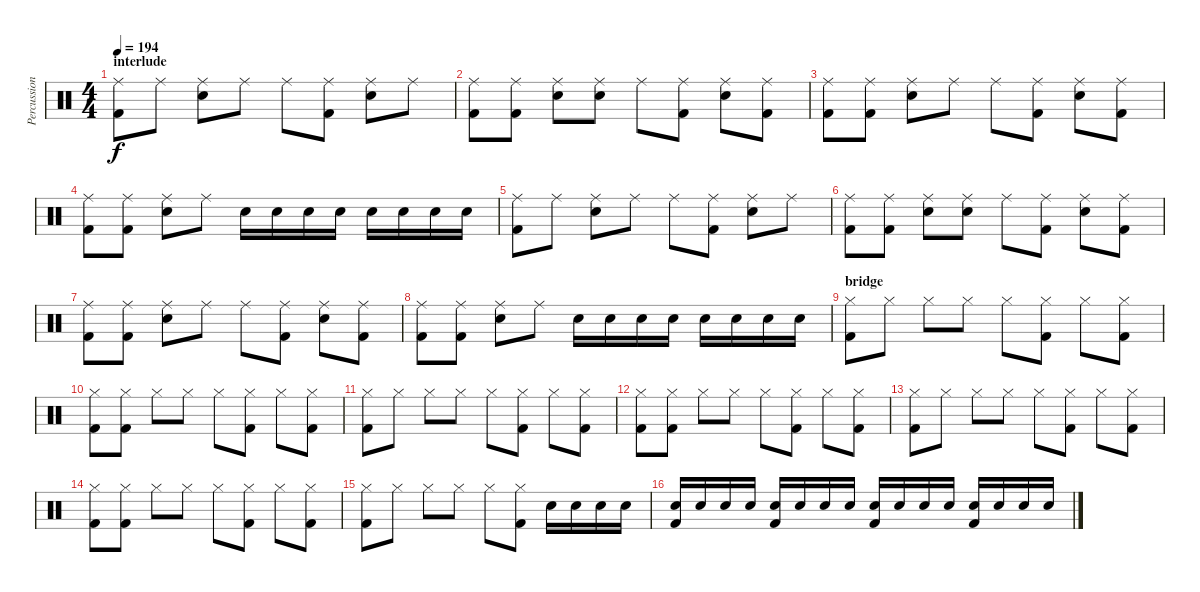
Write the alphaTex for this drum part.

\track ("Percussion" "Percussion") {instrument percussion}
\staff {score}
\articulation defaults
\ts (4 4)
\section ("" "interlude")
\tempo 194
\clef neutral
\ks c
("Ride (middle)" "Kick (hit) 2").8{dy f} "Ride (middle)".8 ("Ride (middle)" "Snare (hit) 2").8 "Ride (middle)".8 "Ride (middle)".8 ("Ride (middle)" "Kick (hit) 2").8 ("Ride (middle)" "Snare (hit) 2").8 "Ride (middle)".8 |
("Ride (middle)" "Kick (hit) 2").8 ("Ride (middle)" "Kick (hit) 2").8 ("Ride (middle)" "Snare (hit) 2").8 ("Ride (middle)" "Snare (hit) 2").8 "Ride (middle)".8 ("Ride (middle)" "Kick (hit) 2").8 ("Ride (middle)" "Snare (hit) 2").8 ("Ride (middle)" "Kick (hit) 2").8 |
("Ride (middle)" "Kick (hit) 2").8 ("Ride (middle)" "Kick (hit) 2").8 ("Ride (middle)" "Snare (hit) 2").8 "Ride (middle)".8 "Ride (middle)".8 ("Ride (middle)" "Kick (hit) 2").8 ("Ride (middle)" "Snare (hit) 2").8 ("Ride (middle)" "Kick (hit) 2").8 |
("Ride (middle)" "Kick (hit) 2").8 ("Ride (middle)" "Kick (hit) 2").8 ("Ride (middle)" "Snare (hit) 2").8 "Ride (middle)".8 "Snare (hit) 2".16 "Snare (hit) 2".16 "Snare (hit) 2".16 "Snare (hit) 2".16 "Snare (hit) 2".16 "Snare (hit) 2".16 "Snare (hit) 2".16 "Snare (hit) 2".16 |
("Ride (middle)" "Kick (hit) 2").8 "Ride (middle)".8 ("Ride (middle)" "Snare (hit) 2").8 "Ride (middle)".8 "Ride (middle)".8 ("Ride (middle)" "Kick (hit) 2").8 ("Ride (middle)" "Snare (hit) 2").8 "Ride (middle)".8 |
("Ride (middle)" "Kick (hit) 2").8 ("Ride (middle)" "Kick (hit) 2").8 ("Ride (middle)" "Snare (hit) 2").8 ("Ride (middle)" "Snare (hit) 2").8 "Ride (middle)".8 ("Ride (middle)" "Kick (hit) 2").8 ("Ride (middle)" "Snare (hit) 2").8 ("Ride (middle)" "Kick (hit) 2").8 |
("Ride (middle)" "Kick (hit) 2").8 ("Ride (middle)" "Kick (hit) 2").8 ("Ride (middle)" "Snare (hit) 2").8 "Ride (middle)".8 "Ride (middle)".8 ("Ride (middle)" "Kick (hit) 2").8 ("Ride (middle)" "Snare (hit) 2").8 ("Ride (middle)" "Kick (hit) 2").8 |
("Ride (middle)" "Kick (hit) 2").8 ("Ride (middle)" "Kick (hit) 2").8 ("Ride (middle)" "Snare (hit) 2").8 "Ride (middle)".8 "Snare (hit) 2".16 "Snare (hit) 2".16 "Snare (hit) 2".16 "Snare (hit) 2".16 "Snare (hit) 2".16 "Snare (hit) 2".16 "Snare (hit) 2".16 "Snare (hit) 2".16 |
\section ("" "bridge")
("Hi-Hat (closed)" "Kick (hit) 2").8 "Hi-Hat (closed)".8 "Hi-Hat (closed)".8 "Hi-Hat (closed)".8 "Hi-Hat (closed)".8 ("Hi-Hat (closed)" "Kick (hit) 2").8 "Hi-Hat (closed)".8 ("Hi-Hat (closed)" "Kick (hit) 2").8 |
("Hi-Hat (closed)" "Kick (hit) 2").8 ("Hi-Hat (closed)" "Kick (hit) 2").8 "Hi-Hat (closed)".8 "Hi-Hat (closed)".8 "Hi-Hat (closed)".8 ("Hi-Hat (closed)" "Kick (hit) 2").8 "Hi-Hat (closed)".8 ("Hi-Hat (closed)" "Kick (hit) 2").8 |
("Hi-Hat (closed)" "Kick (hit) 2").8 "Hi-Hat (closed)".8 "Hi-Hat (closed)".8 "Hi-Hat (closed)".8 "Hi-Hat (closed)".8 ("Hi-Hat (closed)" "Kick (hit) 2").8 "Hi-Hat (closed)".8 ("Hi-Hat (closed)" "Kick (hit) 2").8 |
("Hi-Hat (closed)" "Kick (hit) 2").8 ("Hi-Hat (closed)" "Kick (hit) 2").8 "Hi-Hat (closed)".8 "Hi-Hat (closed)".8 "Hi-Hat (closed)".8 ("Hi-Hat (closed)" "Kick (hit) 2").8 "Hi-Hat (closed)".8 ("Hi-Hat (closed)" "Kick (hit) 2").8 |
("Hi-Hat (closed)" "Kick (hit) 2").8 "Hi-Hat (closed)".8 "Hi-Hat (closed)".8 "Hi-Hat (closed)".8 "Hi-Hat (closed)".8 ("Hi-Hat (closed)" "Kick (hit) 2").8 "Hi-Hat (closed)".8 ("Hi-Hat (closed)" "Kick (hit) 2").8 |
("Hi-Hat (closed)" "Kick (hit) 2").8 ("Hi-Hat (closed)" "Kick (hit) 2").8 "Hi-Hat (closed)".8 "Hi-Hat (closed)".8 "Hi-Hat (closed)".8 ("Hi-Hat (closed)" "Kick (hit) 2").8 "Hi-Hat (closed)".8 ("Hi-Hat (closed)" "Kick (hit) 2").8 |
("Hi-Hat (closed)" "Kick (hit) 2").8 "Hi-Hat (closed)".8 "Hi-Hat (closed)".8 "Hi-Hat (closed)".8 "Hi-Hat (closed)".8 ("Hi-Hat (closed)" "Kick (hit) 2").8 "Snare (hit) 2".16 "Snare (hit) 2".16 "Snare (hit) 2".16 "Snare (hit) 2".16 |
("Snare (hit) 2" "Kick (hit) 2").16 "Snare (hit) 2".16 "Snare (hit) 2".16 "Snare (hit) 2".16 ("Snare (hit) 2" "Kick (hit) 2").16 "Snare (hit) 2".16 "Snare (hit) 2".16 "Snare (hit) 2".16 ("Snare (hit) 2" "Kick (hit) 2").16 "Snare (hit) 2".16 "Snare (hit) 2".16 "Snare (hit) 2".16 ("Snare (hit) 2" "Kick (hit) 2").16 "Snare (hit) 2".16 "Snare (hit) 2".16 "Snare (hit) 2".16
